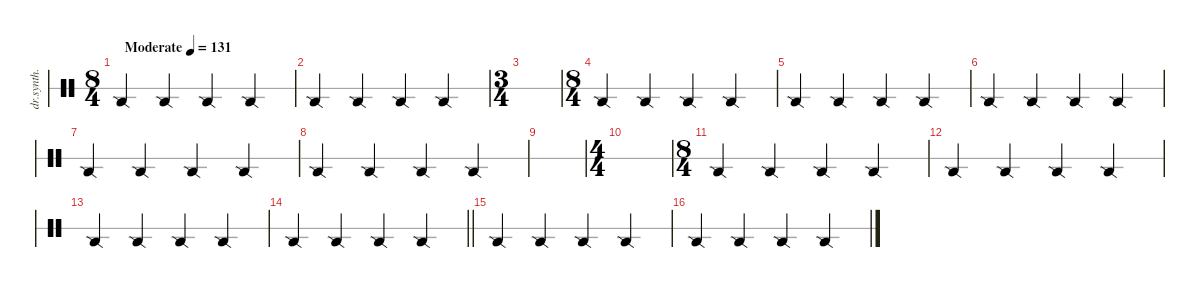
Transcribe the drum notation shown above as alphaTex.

\defaultSystemsLayout 4
\hideDynamics
\bracketExtendMode nobrackets
\otherSystemsTrackNameOrientation horizontal
\track ("Synth Drum" "dr.synth.") {instrument percussion}
\staff {score 1}
\articulation defaults
\ts (8 4)
\beaming (8 4 4 4 4)
\tempo (131 "Moderate")
\clef neutral
\ks c "Snare (side stick) 2".2{dy mf beam Up} "Snare (side stick) 2".2{beam Up} "Snare (side stick) 2".2{beam Up} "Snare (side stick) 2".2{beam Up}
|
"Snare (side stick) 2".2{beam Up} "Snare (side stick) 2".2{beam Up} "Snare (side stick) 2".2{beam Up} "Snare (side stick) 2".2{beam Up} |
\ts (3 4)
\beaming (8 2 2 2)
|
\ts (8 4)
\beaming (8 4 4 4 4)
"Snare (side stick) 2".2{beam Up} "Snare (side stick) 2".2{beam Up} "Snare (side stick) 2".2{beam Up} "Snare (side stick) 2".2{beam Up} |
"Snare (side stick) 2".2{beam Up} "Snare (side stick) 2".2{beam Up} "Snare (side stick) 2".2{beam Up} "Snare (side stick) 2".2{beam Up} |
"Snare (side stick) 2".2{beam Up} "Snare (side stick) 2".2{beam Up} "Snare (side stick) 2".2{beam Up} "Snare (side stick) 2".2{beam Up} |
"Snare (side stick) 2".2{beam Up} "Snare (side stick) 2".2{beam Up} "Snare (side stick) 2".2{beam Up} "Snare (side stick) 2".2{beam Up} |
"Snare (side stick) 2".2{beam Up} "Snare (side stick) 2".2{beam Up} "Snare (side stick) 2".2{beam Up} "Snare (side stick) 2".2{beam Up} |
|
\ts (4 4)
\beaming (8 2 2 2 2)
|
\ts (8 4)
\beaming (8 4 4 4 4)
"Snare (side stick) 2".2{beam Up} "Snare (side stick) 2".2{beam Up} "Snare (side stick) 2".2{beam Up} "Snare (side stick) 2".2{beam Up} |
"Snare (side stick) 2".2{beam Up} "Snare (side stick) 2".2{beam Up} "Snare (side stick) 2".2{beam Up} "Snare (side stick) 2".2{beam Up} |
"Snare (side stick) 2".2{beam Up} "Snare (side stick) 2".2{beam Up} "Snare (side stick) 2".2{beam Up} "Snare (side stick) 2".2{beam Up} |
\barLineRight lightlight "Snare (side stick) 2".2{beam Up} "Snare (side stick) 2".2{beam Up} "Snare (side stick) 2".2{beam Up} "Snare (side stick) 2".2{beam Up}
|
"Snare (side stick) 2".2{beam Up} "Snare (side stick) 2".2{beam Up} "Snare (side stick) 2".2{beam Up} "Snare (side stick) 2".2{beam Up} |
"Snare (side stick) 2".2{beam Up} "Snare (side stick) 2".2{beam Up} "Snare (side stick) 2".2{beam Up} "Snare (side stick) 2".2{beam Up}
